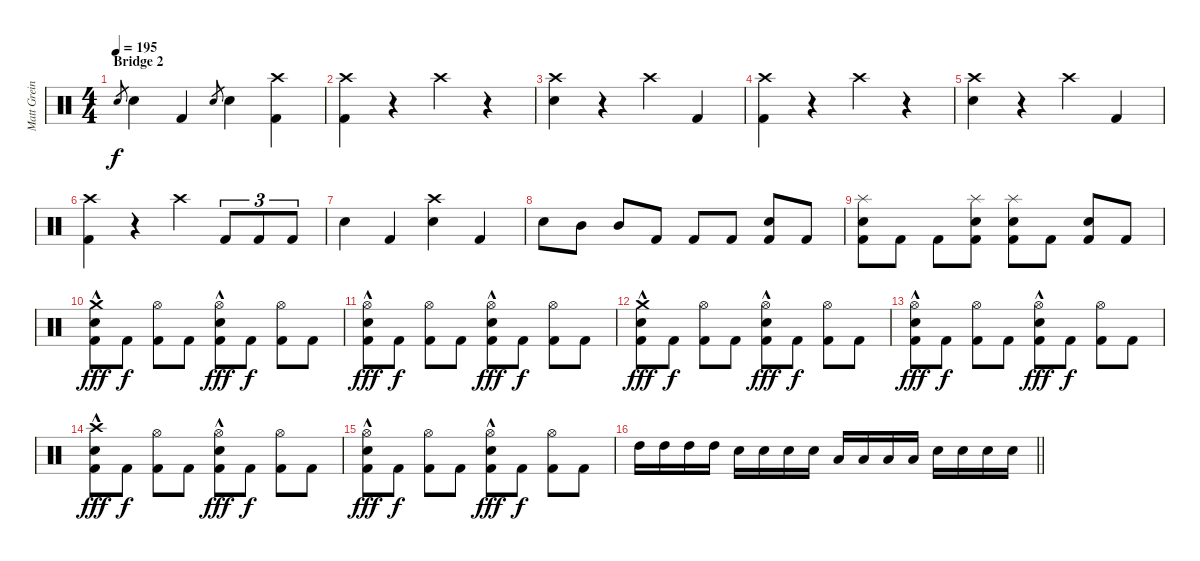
\track ("Matt Greiner" "Matt Grein") {instrument percussion}
\staff {score}
\articulation defaults
\ts (4 4)
\section ("" "Bridge 2")
\tempo 195
\clef neutral
\ks c "Electric Snare (hit)".8{gr dy f} "Electric Snare (hit)".4 "Kick (hit) 2".4 "Electric Snare (hit)".8{gr} "Electric Snare (hit)".4
("Crash high (hit)" "Kick (hit) 2").4 |
("Crash high (hit)" "Kick (hit) 2").4 r.4 "Crash high (hit)".4 r.4 |
("Crash high (hit)" "Electric Snare (hit)").4 r.4 "Crash high (hit)".4 "Kick (hit) 2".4 |
("Crash high (hit)" "Kick (hit) 2").4 r.4 "Crash high (hit)".4 r.4 |
("Crash high (hit)" "Electric Snare (hit)").4 r.4 "Crash high (hit)".4 "Kick (hit) 2".4 |
("Crash high (hit)" "Kick (hit) 2").4 r.4 "Crash high (hit)".4 "Kick (hit) 2".8{tu (3 2)} "Kick (hit) 2".8{tu (3 2)} "Kick (hit) 2".8{tu (3 2)} |
"Electric Snare (hit)".4 "Kick (hit) 2".4 ("Crash high (hit)" "Electric Snare (hit)").4 "Kick (hit) 2".4 |
"Electric Snare (hit)".8 "Mid Tom (hit)".8 "Mid Tom (hit)".8 "Kick (hit) 2".8 "Kick (hit) 2".8 "Kick (hit) 2".8 ("Electric Snare (hit)" "Kick (hit) 2").8 "Kick (hit) 2".8 |
("Splash (hit)" "Electric Snare (hit)" "Kick (hit) 2").8 "Kick (hit) 2".8 "Kick (hit) 2".8 ("Splash (hit)" "Electric Snare (hit)" "Kick (hit) 2").8 ("Splash (hit)" "Electric Snare (hit)" "Kick (hit) 2").8 "Kick (hit) 2".8 ("Electric Snare (hit)" "Kick (hit) 2").8 "Kick (hit) 2".8 |
("Crash medium (hit)"{hac} "Electric Snare (hit)" "Kick (hit) 2").8{dy fff} "Kick (hit) 2".8{dy f} ("Hi-Hat (open)" "Kick (hit) 2").8 "Kick (hit) 2".8 ("Hi-Hat (open)"{hac} "Electric Snare (hit)" "Kick (hit) 2").8{dy fff} "Kick (hit) 2".8{dy f} ("Hi-Hat (open)" "Kick (hit) 2").8 "Kick (hit) 2".8 |
("Hi-Hat (open)"{hac} "Electric Snare (hit)" "Kick (hit) 2").8{dy fff} "Kick (hit) 2".8{dy f} ("Hi-Hat (open)" "Kick (hit) 2").8 "Kick (hit) 2".8 ("Hi-Hat (open)"{hac} "Electric Snare (hit)" "Kick (hit) 2").8{dy fff} "Kick (hit) 2".8{dy f} ("Hi-Hat (open)" "Kick (hit) 2").8 "Kick (hit) 2".8 |
("Crash medium (hit)"{hac} "Electric Snare (hit)" "Kick (hit) 2").8{dy fff} "Kick (hit) 2".8{dy f} ("Hi-Hat (open)" "Kick (hit) 2").8 "Kick (hit) 2".8 ("Hi-Hat (open)"{hac} "Electric Snare (hit)" "Kick (hit) 2").8{dy fff} "Kick (hit) 2".8{dy f} ("Hi-Hat (open)" "Kick (hit) 2").8 "Kick (hit) 2".8 |
("Hi-Hat (open)"{hac} "Electric Snare (hit)" "Kick (hit) 2").8{dy fff} "Kick (hit) 2".8{dy f} ("Hi-Hat (open)" "Kick (hit) 2").8 "Kick (hit) 2".8 ("Hi-Hat (open)"{hac} "Electric Snare (hit)" "Kick (hit) 2").8{dy fff} "Kick (hit) 2".8{dy f} ("Hi-Hat (open)" "Kick (hit) 2").8 "Kick (hit) 2".8 |
("Crash high (hit)"{hac} "Electric Snare (hit)" "Kick (hit) 2").8{dy fff} "Kick (hit) 2".8{dy f} ("Hi-Hat (open)" "Kick (hit) 2").8 "Kick (hit) 2".8 ("Hi-Hat (open)"{hac} "Electric Snare (hit)" "Kick (hit) 2").8{dy fff} "Kick (hit) 2".8{dy f} ("Hi-Hat (open)" "Kick (hit) 2").8 "Kick (hit) 2".8 |
("Hi-Hat (open)"{hac} "Electric Snare (hit)" "Kick (hit) 2").8{dy fff} "Kick (hit) 2".8{dy f} ("Hi-Hat (open)" "Kick (hit) 2").8 "Kick (hit) 2".8 ("Hi-Hat (open)"{hac} "Electric Snare (hit)" "Kick (hit) 2").8{dy fff} "Kick (hit) 2".8{dy f} ("Hi-Hat (open)" "Kick (hit) 2").8 "Kick (hit) 2".8 |
\barLineRight lightlight "High Tom (hit)".16 "High Tom (hit)".16 "High Tom (hit)".16 "High Tom (hit)".16 "Electric Snare (hit)".16 "Electric Snare (hit)".16 "Electric Snare (hit)".16 "Electric Snare (hit)".16 "Low Tom (hit)".16 "Low Tom (hit)".16 "Low Tom (hit)".16 "Low Tom (hit)".16 "Electric Snare (hit)".16 "Electric Snare (hit)".16 "Electric Snare (hit)".16 "Electric Snare (hit)".16
